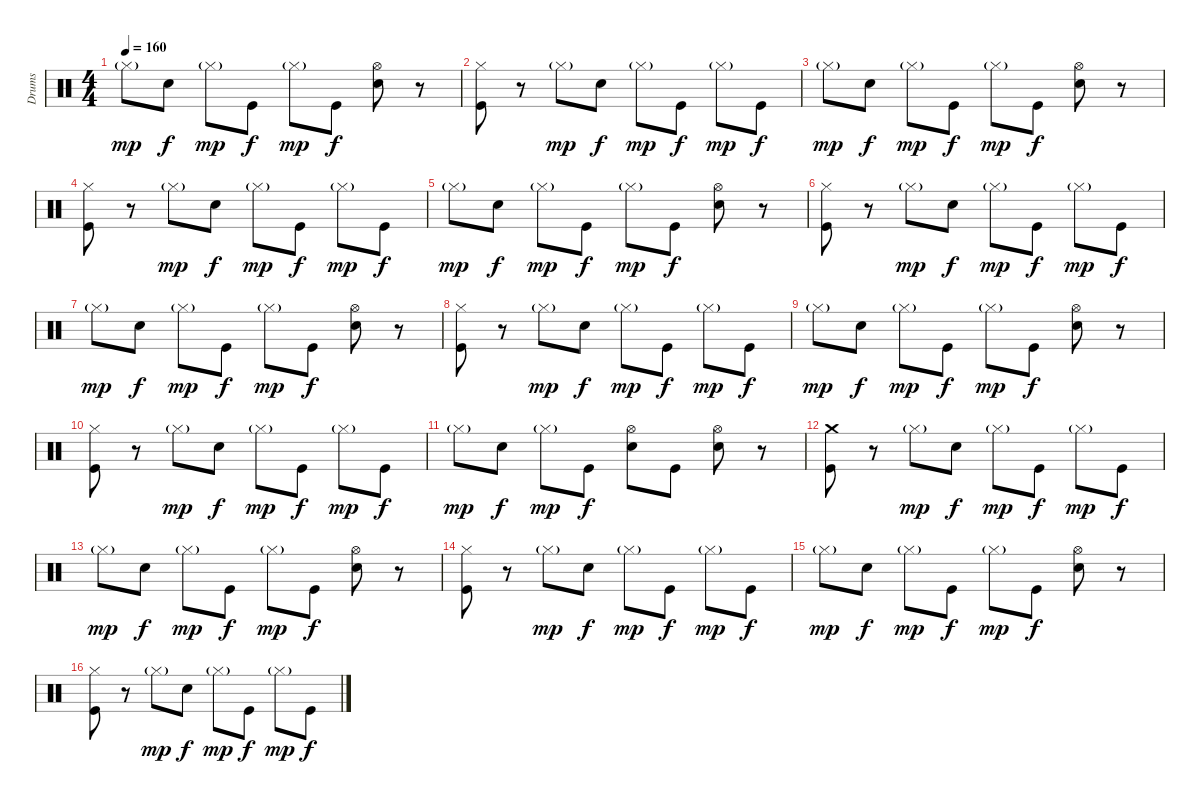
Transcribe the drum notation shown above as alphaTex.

\track ("Drums" "Drums") {instrument percussion}
\staff {score}
\articulation defaults
\ts (4 4)
\tempo 160
\clef neutral
\ks c "Hi-Hat (closed)"{g}.8{dy mp} "Electric Snare (hit)".8{dy f} "Hi-Hat (closed)"{g}.8{dy mp} "Kick (hit)".8{dy f} "Hi-Hat (closed)"{g}.8{dy mp} "Kick (hit)".8{dy f}
("Hi-Hat (open)" "Electric Snare (hit)").8 r.8 |
("Hi-Hat (closed)" "Kick (hit)").8 r.8 "Hi-Hat (closed)"{g}.8{dy mp} "Electric Snare (hit)".8{dy f} "Hi-Hat (closed)"{g}.8{dy mp} "Kick (hit)".8{dy f} "Hi-Hat (closed)"{g}.8{dy mp} "Kick (hit)".8{dy f} |
"Hi-Hat (closed)"{g}.8{dy mp} "Electric Snare (hit)".8{dy f} "Hi-Hat (closed)"{g}.8{dy mp} "Kick (hit)".8{dy f} "Hi-Hat (closed)"{g}.8{dy mp} "Kick (hit)".8{dy f} ("Hi-Hat (open)" "Electric Snare (hit)").8 r.8 |
("Hi-Hat (closed)" "Kick (hit)").8 r.8 "Hi-Hat (closed)"{g}.8{dy mp} "Electric Snare (hit)".8{dy f} "Hi-Hat (closed)"{g}.8{dy mp} "Kick (hit)".8{dy f} "Hi-Hat (closed)"{g}.8{dy mp} "Kick (hit)".8{dy f} |
"Hi-Hat (closed)"{g}.8{dy mp} "Electric Snare (hit)".8{dy f} "Hi-Hat (closed)"{g}.8{dy mp} "Kick (hit)".8{dy f} "Hi-Hat (closed)"{g}.8{dy mp} "Kick (hit)".8{dy f} ("Hi-Hat (open)" "Electric Snare (hit)").8 r.8 |
("Hi-Hat (closed)" "Kick (hit)").8 r.8 "Hi-Hat (closed)"{g}.8{dy mp} "Electric Snare (hit)".8{dy f} "Hi-Hat (closed)"{g}.8{dy mp} "Kick (hit)".8{dy f} "Hi-Hat (closed)"{g}.8{dy mp} "Kick (hit)".8{dy f} |
"Hi-Hat (closed)"{g}.8{dy mp} "Electric Snare (hit)".8{dy f} "Hi-Hat (closed)"{g}.8{dy mp} "Kick (hit)".8{dy f} "Hi-Hat (closed)"{g}.8{dy mp} "Kick (hit)".8{dy f} ("Hi-Hat (open)" "Electric Snare (hit)").8 r.8 |
("Hi-Hat (closed)" "Kick (hit)").8 r.8 "Hi-Hat (closed)"{g}.8{dy mp} "Electric Snare (hit)".8{dy f} "Hi-Hat (closed)"{g}.8{dy mp} "Kick (hit)".8{dy f} "Hi-Hat (closed)"{g}.8{dy mp} "Kick (hit)".8{dy f} |
"Hi-Hat (closed)"{g}.8{dy mp} "Electric Snare (hit)".8{dy f} "Hi-Hat (closed)"{g}.8{dy mp} "Kick (hit)".8{dy f} "Hi-Hat (closed)"{g}.8{dy mp} "Kick (hit)".8{dy f} ("Hi-Hat (open)" "Electric Snare (hit)").8 r.8 |
("Hi-Hat (closed)" "Kick (hit)").8 r.8 "Hi-Hat (closed)"{g}.8{dy mp} "Electric Snare (hit)".8{dy f} "Hi-Hat (closed)"{g}.8{dy mp} "Kick (hit)".8{dy f} "Hi-Hat (closed)"{g}.8{dy mp} "Kick (hit)".8{dy f} |
"Hi-Hat (closed)"{g}.8{dy mp} "Electric Snare (hit)".8{dy f} "Hi-Hat (closed)"{g}.8{dy mp} "Kick (hit)".8{dy f} ("Hi-Hat (open)" "Electric Snare (hit)").8 "Kick (hit)".8 ("Hi-Hat (open)" "Electric Snare (hit)").8 r.8 |
("Crash medium (hit)" "Kick (hit)").8 r.8 "Hi-Hat (closed)"{g}.8{dy mp} "Electric Snare (hit)".8{dy f} "Hi-Hat (closed)"{g}.8{dy mp} "Kick (hit)".8{dy f} "Hi-Hat (closed)"{g}.8{dy mp} "Kick (hit)".8{dy f} |
"Hi-Hat (closed)"{g}.8{dy mp} "Electric Snare (hit)".8{dy f} "Hi-Hat (closed)"{g}.8{dy mp} "Kick (hit)".8{dy f} "Hi-Hat (closed)"{g}.8{dy mp} "Kick (hit)".8{dy f} ("Hi-Hat (open)" "Electric Snare (hit)").8 r.8 |
("Hi-Hat (closed)" "Kick (hit)").8 r.8 "Hi-Hat (closed)"{g}.8{dy mp} "Electric Snare (hit)".8{dy f} "Hi-Hat (closed)"{g}.8{dy mp} "Kick (hit)".8{dy f} "Hi-Hat (closed)"{g}.8{dy mp} "Kick (hit)".8{dy f} |
"Hi-Hat (closed)"{g}.8{dy mp} "Electric Snare (hit)".8{dy f} "Hi-Hat (closed)"{g}.8{dy mp} "Kick (hit)".8{dy f} "Hi-Hat (closed)"{g}.8{dy mp} "Kick (hit)".8{dy f} ("Hi-Hat (open)" "Electric Snare (hit)").8 r.8 |
("Hi-Hat (closed)" "Kick (hit)").8 r.8 "Hi-Hat (closed)"{g}.8{dy mp} "Electric Snare (hit)".8{dy f} "Hi-Hat (closed)"{g}.8{dy mp} "Kick (hit)".8{dy f} "Hi-Hat (closed)"{g}.8{dy mp} "Kick (hit)".8{dy f}
